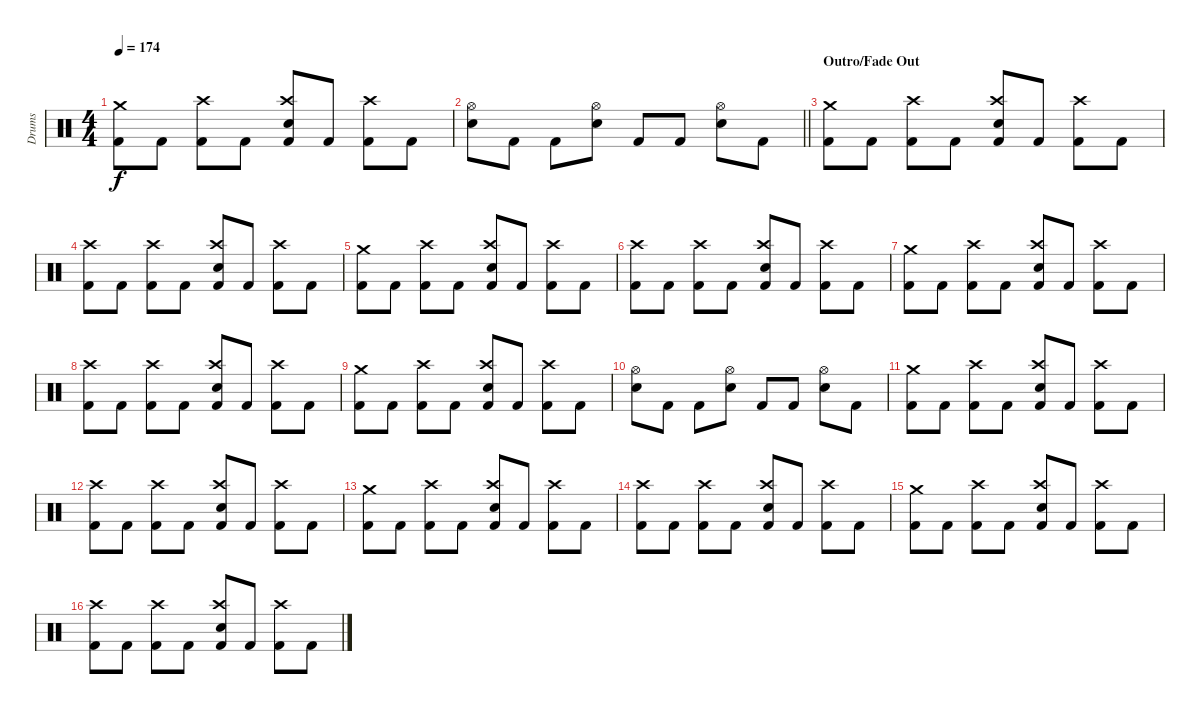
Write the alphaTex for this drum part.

\track ("Drums" "Drums") {instrument percussion}
\staff {score}
\articulation defaults
\ts (4 4)
\tempo 174
\clef neutral
\ks c
("Crash medium (hit)" "Kick (hit) 2").8{dy f} "Kick (hit) 2".8 ("Crash high (hit)" "Kick (hit) 2").8 "Kick (hit) 2".8 ("Crash high (hit)" "Electric Snare (hit)" "Kick (hit) 2").8 "Kick (hit) 2".8 ("Crash high (hit)" "Kick (hit) 2").8 "Kick (hit) 2".8 |
\barLineRight lightlight
("Hi-Hat (open)" "Electric Snare (hit)").8 "Kick (hit) 2".8 "Kick (hit) 2".8 ("Hi-Hat (open)" "Electric Snare (hit)").8 "Kick (hit) 2".8 "Kick (hit) 2".8 ("Hi-Hat (open)" "Electric Snare (hit)").8 "Kick (hit) 2".8 |
\section ("" "Outro/Fade Out")
("Crash medium (hit)" "Kick (hit) 2").8 "Kick (hit) 2".8 ("Crash high (hit)" "Kick (hit) 2").8 "Kick (hit) 2".8 ("Crash high (hit)" "Electric Snare (hit)" "Kick (hit) 2").8 "Kick (hit) 2".8 ("Crash high (hit)" "Kick (hit) 2").8 "Kick (hit) 2".8 |
("Crash high (hit)" "Kick (hit) 2").8 "Kick (hit) 2".8 ("Crash high (hit)" "Kick (hit) 2").8 "Kick (hit) 2".8 ("Crash high (hit)" "Electric Snare (hit)" "Kick (hit) 2").8 "Kick (hit) 2".8 ("Crash high (hit)" "Kick (hit) 2").8 "Kick (hit) 2".8 |
("Crash medium (hit)" "Kick (hit) 2").8 "Kick (hit) 2".8 ("Crash high (hit)" "Kick (hit) 2").8 "Kick (hit) 2".8 ("Crash high (hit)" "Electric Snare (hit)" "Kick (hit) 2").8 "Kick (hit) 2".8 ("Crash high (hit)" "Kick (hit) 2").8 "Kick (hit) 2".8 |
("Crash high (hit)" "Kick (hit) 2").8 "Kick (hit) 2".8 ("Crash high (hit)" "Kick (hit) 2").8 "Kick (hit) 2".8 ("Crash high (hit)" "Electric Snare (hit)" "Kick (hit) 2").8 "Kick (hit) 2".8 ("Crash high (hit)" "Kick (hit) 2").8 "Kick (hit) 2".8 |
("Crash medium (hit)" "Kick (hit) 2").8 "Kick (hit) 2".8 ("Crash high (hit)" "Kick (hit) 2").8 "Kick (hit) 2".8 ("Crash high (hit)" "Electric Snare (hit)" "Kick (hit) 2").8 "Kick (hit) 2".8 ("Crash high (hit)" "Kick (hit) 2").8 "Kick (hit) 2".8 |
("Crash high (hit)" "Kick (hit) 2").8 "Kick (hit) 2".8 ("Crash high (hit)" "Kick (hit) 2").8 "Kick (hit) 2".8 ("Crash high (hit)" "Electric Snare (hit)" "Kick (hit) 2").8 "Kick (hit) 2".8 ("Crash high (hit)" "Kick (hit) 2").8 "Kick (hit) 2".8 |
("Crash medium (hit)" "Kick (hit) 2").8 "Kick (hit) 2".8 ("Crash high (hit)" "Kick (hit) 2").8 "Kick (hit) 2".8 ("Crash high (hit)" "Electric Snare (hit)" "Kick (hit) 2").8 "Kick (hit) 2".8 ("Crash high (hit)" "Kick (hit) 2").8 "Kick (hit) 2".8 |
("Hi-Hat (open)" "Electric Snare (hit)").8 "Kick (hit) 2".8 "Kick (hit) 2".8 ("Hi-Hat (open)" "Electric Snare (hit)").8 "Kick (hit) 2".8 "Kick (hit) 2".8 ("Hi-Hat (open)" "Electric Snare (hit)").8 "Kick (hit) 2".8 |
("Crash medium (hit)" "Kick (hit) 2").8 "Kick (hit) 2".8 ("Crash high (hit)" "Kick (hit) 2").8 "Kick (hit) 2".8 ("Crash high (hit)" "Electric Snare (hit)" "Kick (hit) 2").8 "Kick (hit) 2".8 ("Crash high (hit)" "Kick (hit) 2").8 "Kick (hit) 2".8 |
("Crash high (hit)" "Kick (hit) 2").8 "Kick (hit) 2".8 ("Crash high (hit)" "Kick (hit) 2").8 "Kick (hit) 2".8 ("Crash high (hit)" "Electric Snare (hit)" "Kick (hit) 2").8 "Kick (hit) 2".8 ("Crash high (hit)" "Kick (hit) 2").8 "Kick (hit) 2".8 |
("Crash medium (hit)" "Kick (hit) 2").8 "Kick (hit) 2".8 ("Crash high (hit)" "Kick (hit) 2").8 "Kick (hit) 2".8 ("Crash high (hit)" "Electric Snare (hit)" "Kick (hit) 2").8 "Kick (hit) 2".8 ("Crash high (hit)" "Kick (hit) 2").8 "Kick (hit) 2".8 |
("Crash high (hit)" "Kick (hit) 2").8 "Kick (hit) 2".8 ("Crash high (hit)" "Kick (hit) 2").8 "Kick (hit) 2".8 ("Crash high (hit)" "Electric Snare (hit)" "Kick (hit) 2").8 "Kick (hit) 2".8 ("Crash high (hit)" "Kick (hit) 2").8 "Kick (hit) 2".8 |
("Crash medium (hit)" "Kick (hit) 2").8 "Kick (hit) 2".8 ("Crash high (hit)" "Kick (hit) 2").8 "Kick (hit) 2".8 ("Crash high (hit)" "Electric Snare (hit)" "Kick (hit) 2").8 "Kick (hit) 2".8 ("Crash high (hit)" "Kick (hit) 2").8 "Kick (hit) 2".8 |
("Crash high (hit)" "Kick (hit) 2").8 "Kick (hit) 2".8 ("Crash high (hit)" "Kick (hit) 2").8 "Kick (hit) 2".8 ("Crash high (hit)" "Electric Snare (hit)" "Kick (hit) 2").8 "Kick (hit) 2".8 ("Crash high (hit)" "Kick (hit) 2").8 "Kick (hit) 2".8
